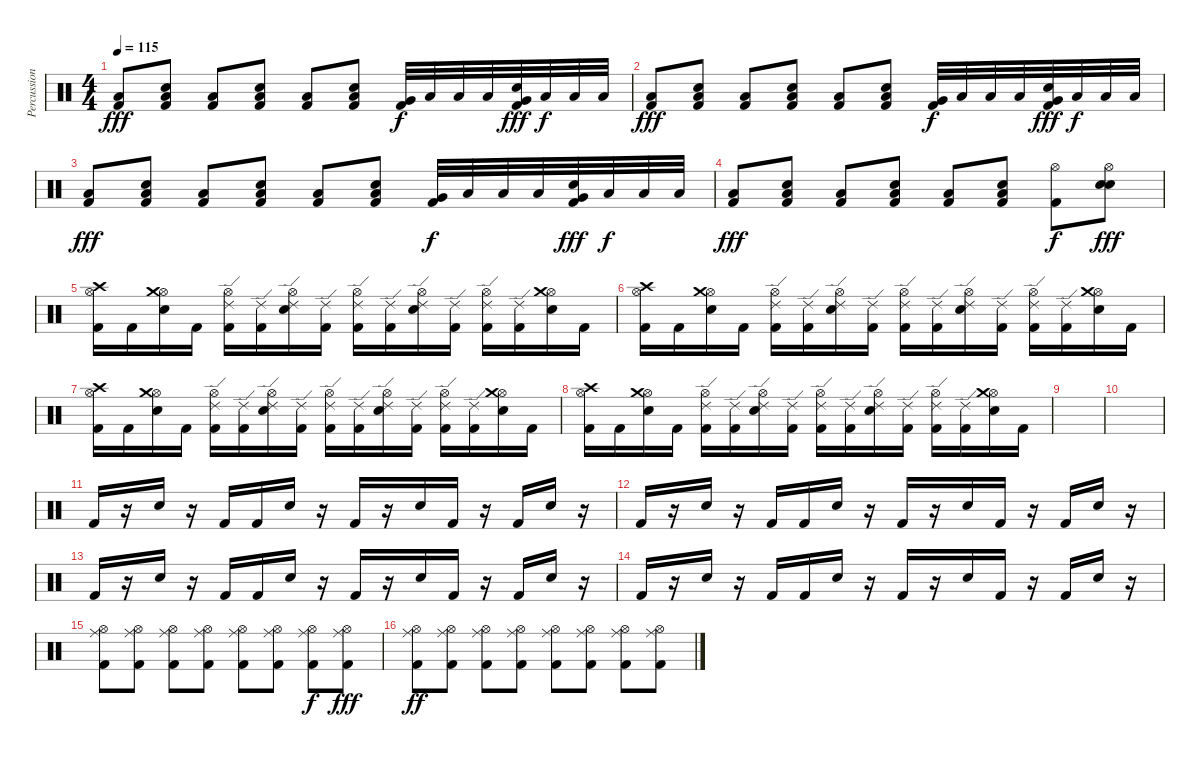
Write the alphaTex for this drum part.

\track ("Percussion" "Percussion") {instrument percussion}
\staff {score}
\articulation defaults
\ts (4 4)
\tempo 115
\clef neutral
\ks c
("Kick (hit) 2" "Low Floor Tom (hit)").8{dy fff} ("Kick (hit) 2" "Low Floor Tom (hit)" "Snare (hit) 2").8 ("Kick (hit) 2" "Low Floor Tom (hit)").8 ("Kick (hit) 2" "Low Floor Tom (hit)" "Snare (hit) 2").8 ("Kick (hit) 2" "Low Floor Tom (hit)").8 ("Kick (hit) 2" "Low Floor Tom (hit)" "Snare (hit) 2").8 ("Kick (hit) 2" "Very Low Tom (hit)").32{dy f} "Low Floor Tom (hit)".32 "Low Floor Tom (hit)".32 "Low Floor Tom (hit)".32 ("Kick (hit) 2" "Very Low Tom (hit)" "Snare (hit) 2").32{dy fff} "Low Floor Tom (hit)".32{dy f} "Low Floor Tom (hit)".32 "Low Floor Tom (hit)".32 |
("Kick (hit) 2" "Low Floor Tom (hit)").8{dy fff} ("Kick (hit) 2" "Low Floor Tom (hit)" "Snare (hit) 2").8 ("Kick (hit) 2" "Low Floor Tom (hit)").8 ("Kick (hit) 2" "Low Floor Tom (hit)" "Snare (hit) 2").8 ("Kick (hit) 2" "Low Floor Tom (hit)").8 ("Kick (hit) 2" "Low Floor Tom (hit)" "Snare (hit) 2").8 ("Kick (hit) 2" "Very Low Tom (hit)").32{dy f} "Low Floor Tom (hit)".32 "Low Floor Tom (hit)".32 "Low Floor Tom (hit)".32 ("Kick (hit) 2" "Very Low Tom (hit)" "Snare (hit) 2").32{dy fff} "Low Floor Tom (hit)".32{dy f} "Low Floor Tom (hit)".32 "Low Floor Tom (hit)".32 |
("Kick (hit) 2" "Low Floor Tom (hit)").8{dy fff} ("Kick (hit) 2" "Low Floor Tom (hit)" "Snare (hit) 2").8 ("Kick (hit) 2" "Low Floor Tom (hit)").8 ("Kick (hit) 2" "Low Floor Tom (hit)" "Snare (hit) 2").8 ("Kick (hit) 2" "Low Floor Tom (hit)").8 ("Kick (hit) 2" "Low Floor Tom (hit)" "Snare (hit) 2").8 ("Kick (hit) 2" "Very Low Tom (hit)").32{dy f} "Low Floor Tom (hit)".32 "Low Floor Tom (hit)".32 "Low Floor Tom (hit)".32 ("Kick (hit) 2" "Very Low Tom (hit)" "Snare (hit) 2").32{dy fff} "Low Floor Tom (hit)".32{dy f} "Low Floor Tom (hit)".32 "Low Floor Tom (hit)".32 |
("Kick (hit) 2" "Low Floor Tom (hit)").8{dy fff} ("Kick (hit) 2" "Low Floor Tom (hit)" "Snare (hit) 2").8 ("Kick (hit) 2" "Low Floor Tom (hit)").8 ("Kick (hit) 2" "Low Floor Tom (hit)" "Snare (hit) 2").8 ("Kick (hit) 2" "Low Floor Tom (hit)").8 ("Kick (hit) 2" "Low Floor Tom (hit)" "Snare (hit) 2").8 ("Kick (hit) 2" "Hi-Hat (open)").8{dy f} ("Electric Snare (hit)" "Hi-Hat (open)" "Electric Snare (hit)").8{dy fff} |
("Kick (hit) 2" "Hi-Hat (open)" "Crash high (hit)").16 "Kick (hit) 2".16 ("Electric Snare (hit)" "Hi-Hat (open)" "Crash medium (hit)").16 "Kick (hit) 2".16 ("Kick (hit) 2" "Hi-Hat (open)" "Ride (edge) 2").16 ("Kick (hit) 2" "Ride (edge) 2").16 ("Electric Snare (hit)" "Hi-Hat (open)" "Ride (edge) 2").16 ("Kick (hit) 2" "Ride (edge) 2").16 ("Kick (hit) 2" "Hi-Hat (open)" "Ride (edge) 2").16 ("Kick (hit) 2" "Ride (edge) 2").16 ("Electric Snare (hit)" "Hi-Hat (open)" "Ride (edge) 2").16 ("Kick (hit) 2" "Ride (edge) 2").16 ("Kick (hit) 2" "Hi-Hat (open)" "Ride (edge) 2").16 ("Kick (hit) 2" "Ride (edge) 2").16 ("Electric Snare (hit)" "Hi-Hat (open)" "Crash medium (hit)").16 "Kick (hit) 2".16 |
("Kick (hit) 2" "Hi-Hat (open)" "Crash high (hit)").16 "Kick (hit) 2".16 ("Electric Snare (hit)" "Hi-Hat (open)" "Crash medium (hit)").16 "Kick (hit) 2".16 ("Kick (hit) 2" "Hi-Hat (open)" "Ride (edge) 2").16 ("Kick (hit) 2" "Ride (edge) 2").16 ("Electric Snare (hit)" "Hi-Hat (open)" "Ride (edge) 2").16 ("Kick (hit) 2" "Ride (edge) 2").16 ("Kick (hit) 2" "Hi-Hat (open)" "Ride (edge) 2").16 ("Kick (hit) 2" "Ride (edge) 2").16 ("Electric Snare (hit)" "Hi-Hat (open)" "Ride (edge) 2").16 ("Kick (hit) 2" "Ride (edge) 2").16 ("Kick (hit) 2" "Hi-Hat (open)" "Ride (edge) 2").16 ("Kick (hit) 2" "Ride (edge) 2").16 ("Electric Snare (hit)" "Hi-Hat (open)" "Crash medium (hit)").16 "Kick (hit) 2".16 |
("Kick (hit) 2" "Hi-Hat (open)" "Crash high (hit)").16 "Kick (hit) 2".16 ("Electric Snare (hit)" "Hi-Hat (open)" "Crash medium (hit)").16 "Kick (hit) 2".16 ("Kick (hit) 2" "Hi-Hat (open)" "Ride (edge) 2").16 ("Kick (hit) 2" "Ride (edge) 2").16 ("Electric Snare (hit)" "Hi-Hat (open)" "Ride (edge) 2").16 ("Kick (hit) 2" "Ride (edge) 2").16 ("Kick (hit) 2" "Hi-Hat (open)" "Ride (edge) 2").16 ("Kick (hit) 2" "Ride (edge) 2").16 ("Electric Snare (hit)" "Hi-Hat (open)" "Ride (edge) 2").16 ("Kick (hit) 2" "Ride (edge) 2").16 ("Kick (hit) 2" "Hi-Hat (open)" "Ride (edge) 2").16 ("Kick (hit) 2" "Ride (edge) 2").16 ("Electric Snare (hit)" "Hi-Hat (open)" "Crash medium (hit)").16 "Kick (hit) 2".16 |
("Kick (hit) 2" "Hi-Hat (open)" "Crash high (hit)").16 "Kick (hit) 2".16 ("Electric Snare (hit)" "Hi-Hat (open)" "Crash medium (hit)").16 "Kick (hit) 2".16 ("Kick (hit) 2" "Hi-Hat (open)" "Ride (edge) 2").16 ("Kick (hit) 2" "Ride (edge) 2").16 ("Electric Snare (hit)" "Hi-Hat (open)" "Ride (edge) 2").16 ("Kick (hit) 2" "Ride (edge) 2").16 ("Kick (hit) 2" "Hi-Hat (open)" "Ride (edge) 2").16 ("Kick (hit) 2" "Ride (edge) 2").16 ("Electric Snare (hit)" "Hi-Hat (open)" "Ride (edge) 2").16 ("Kick (hit) 2" "Ride (edge) 2").16 ("Kick (hit) 2" "Hi-Hat (open)" "Ride (edge) 2").16 ("Kick (hit) 2" "Ride (edge) 2").16 ("Electric Snare (hit)" "Hi-Hat (open)" "Crash medium (hit)").16 "Kick (hit) 2".16 |
|
|
"Kick (hit) 2".16 r.16 "Electric Snare (hit)".16 r.16 "Kick (hit) 2".16 "Kick (hit) 2".16 "Electric Snare (hit)".16 r.16 "Kick (hit) 2".16 r.16 "Electric Snare (hit)".16 "Kick (hit) 2".16 r.16 "Kick (hit) 2".16 "Electric Snare (hit)".16 r.16 |
"Kick (hit) 2".16 r.16 "Electric Snare (hit)".16 r.16 "Kick (hit) 2".16 "Kick (hit) 2".16 "Electric Snare (hit)".16 r.16 "Kick (hit) 2".16 r.16 "Electric Snare (hit)".16 "Kick (hit) 2".16 r.16 "Kick (hit) 2".16 "Electric Snare (hit)".16 r.16 |
"Kick (hit) 2".16 r.16 "Electric Snare (hit)".16 r.16 "Kick (hit) 2".16 "Kick (hit) 2".16 "Electric Snare (hit)".16 r.16 "Kick (hit) 2".16 r.16 "Electric Snare (hit)".16 "Kick (hit) 2".16 r.16 "Kick (hit) 2".16 "Electric Snare (hit)".16 r.16 |
"Kick (hit) 2".16 r.16 "Electric Snare (hit)".16 r.16 "Kick (hit) 2".16 "Kick (hit) 2".16 "Electric Snare (hit)".16 r.16 "Kick (hit) 2".16 r.16 "Electric Snare (hit)".16 "Kick (hit) 2".16 r.16 "Kick (hit) 2".16 "Electric Snare (hit)".16 r.16 |
("Kick (hit) 2" "Hi-Hat (open)" "Ride (middle)").8 ("Kick (hit) 2" "Hi-Hat (open)" "Ride (middle)").8 ("Kick (hit) 2" "Hi-Hat (open)" "Ride (middle)").8 ("Kick (hit) 2" "Hi-Hat (open)" "Ride (middle)").8 ("Kick (hit) 2" "Hi-Hat (open)" "Ride (middle)").8 ("Kick (hit) 2" "Hi-Hat (open)" "Ride (middle)").8 ("Kick (hit) 2" "Hi-Hat (open)" "Ride (middle)").8{dy f} ("Kick (hit) 2" "Hi-Hat (open)" "Ride (middle)").8{dy fff} |
("Kick (hit) 2" "Hi-Hat (open)" "Ride (middle)").8{dy ff} ("Kick (hit) 2" "Hi-Hat (open)" "Ride (middle)").8 ("Kick (hit) 2" "Hi-Hat (open)" "Ride (middle)").8 ("Kick (hit) 2" "Hi-Hat (open)" "Ride (middle)").8 ("Kick (hit) 2" "Hi-Hat (open)" "Ride (middle)").8 ("Kick (hit) 2" "Hi-Hat (open)" "Ride (middle)").8 ("Kick (hit) 2" "Hi-Hat (open)" "Ride (middle)").8 ("Kick (hit) 2" "Hi-Hat (open)" "Ride (middle)").8
